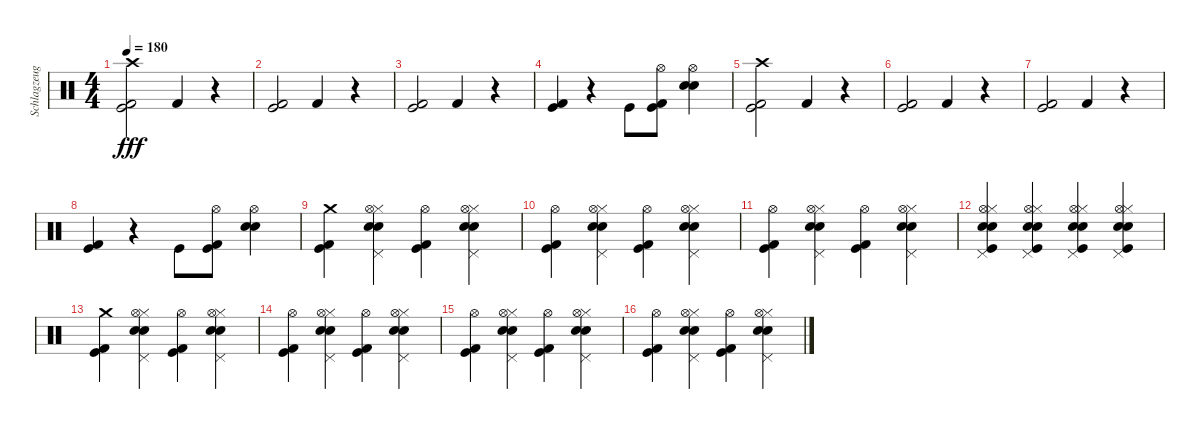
\track ("Schlagzeug" "Schlagzeug") {instrument percussion}
\staff {score}
\articulation defaults
\ts (4 4)
\tempo 180
\clef neutral
\ks c
("Kick (hit)" "Kick (hit) 2" "Crash high (hit)").2{dy fff} "Kick (hit) 2".4 r.4 |
("Kick (hit)" "Kick (hit) 2").2 "Kick (hit) 2".4 r.4 |
("Kick (hit)" "Kick (hit) 2").2 "Kick (hit) 2".4 r.4 |
("Kick (hit) 2" "Kick (hit)").4 r.4 "Kick (hit)".8 ("Hi-Hat (open)" "Kick (hit) 2" "Kick (hit)").8 ("Electric Snare (hit)" "Hi-Hat (open)" "Snare (hit) 2").4 |
("Kick (hit)" "Kick (hit) 2" "Crash high (hit)").2 "Kick (hit) 2".4 r.4 |
("Kick (hit)" "Kick (hit) 2").2 "Kick (hit) 2".4 r.4 |
("Kick (hit)" "Kick (hit) 2").2 "Kick (hit) 2".4 r.4 |
("Kick (hit) 2" "Kick (hit)").4 r.4 "Kick (hit)".8 ("Hi-Hat (open)" "Kick (hit) 2" "Kick (hit)").8 ("Electric Snare (hit)" "Hi-Hat (open)" "Snare (hit) 2").4 |
("Kick (hit)" "Kick (hit) 2" "Crash medium (hit)").4 ("Electric Snare (hit)" "Hi-Hat (closed)" "Snare (hit) 2" "Pedal Hi-Hat (hit)" "Hi-Hat (open)").4 ("Kick (hit)" "Kick (hit) 2" "Hi-Hat (open)").4 ("Electric Snare (hit)" "Hi-Hat (closed)" "Snare (hit) 2" "Pedal Hi-Hat (hit)" "Hi-Hat (open)").4 |
("Kick (hit)" "Kick (hit) 2" "Hi-Hat (open)").4 ("Electric Snare (hit)" "Hi-Hat (closed)" "Snare (hit) 2" "Pedal Hi-Hat (hit)" "Hi-Hat (open)").4 ("Kick (hit)" "Kick (hit) 2" "Hi-Hat (open)").4 ("Electric Snare (hit)" "Hi-Hat (closed)" "Snare (hit) 2" "Pedal Hi-Hat (hit)" "Hi-Hat (open)").4 |
("Kick (hit)" "Kick (hit) 2" "Hi-Hat (open)").4 ("Electric Snare (hit)" "Hi-Hat (closed)" "Snare (hit) 2" "Pedal Hi-Hat (hit)" "Hi-Hat (open)").4 ("Kick (hit)" "Hi-Hat (open)" "Kick (hit) 2").4 ("Electric Snare (hit)" "Hi-Hat (closed)" "Snare (hit) 2" "Pedal Hi-Hat (hit)" "Hi-Hat (open)").4 |
("Hi-Hat (open)" "Pedal Hi-Hat (hit)" "Snare (hit) 2" "Electric Snare (hit)" "Hi-Hat (closed)" "Kick (hit)").4 ("Hi-Hat (open)" "Pedal Hi-Hat (hit)" "Snare (hit) 2" "Electric Snare (hit)" "Hi-Hat (closed)" "Kick (hit)").4 ("Hi-Hat (open)" "Pedal Hi-Hat (hit)" "Snare (hit) 2" "Electric Snare (hit)" "Hi-Hat (closed)" "Kick (hit)").4 ("Hi-Hat (open)" "Pedal Hi-Hat (hit)" "Snare (hit) 2" "Electric Snare (hit)" "Hi-Hat (closed)" "Kick (hit)").4 |
("Kick (hit)" "Kick (hit) 2" "Crash medium (hit)").4 ("Electric Snare (hit)" "Hi-Hat (closed)" "Snare (hit) 2" "Pedal Hi-Hat (hit)" "Hi-Hat (open)").4 ("Kick (hit)" "Kick (hit) 2" "Hi-Hat (open)").4 ("Electric Snare (hit)" "Hi-Hat (closed)" "Snare (hit) 2" "Pedal Hi-Hat (hit)" "Hi-Hat (open)").4 |
("Kick (hit)" "Kick (hit) 2" "Hi-Hat (open)").4 ("Electric Snare (hit)" "Hi-Hat (closed)" "Snare (hit) 2" "Pedal Hi-Hat (hit)" "Hi-Hat (open)").4 ("Kick (hit)" "Kick (hit) 2" "Hi-Hat (open)").4 ("Electric Snare (hit)" "Hi-Hat (closed)" "Snare (hit) 2" "Pedal Hi-Hat (hit)" "Hi-Hat (open)").4 |
("Kick (hit)" "Kick (hit) 2" "Hi-Hat (open)").4 ("Electric Snare (hit)" "Hi-Hat (closed)" "Snare (hit) 2" "Pedal Hi-Hat (hit)" "Hi-Hat (open)").4 ("Kick (hit)" "Kick (hit) 2" "Hi-Hat (open)").4 ("Electric Snare (hit)" "Hi-Hat (closed)" "Snare (hit) 2" "Pedal Hi-Hat (hit)" "Hi-Hat (open)").4 |
("Kick (hit)" "Kick (hit) 2" "Hi-Hat (open)").4 ("Electric Snare (hit)" "Hi-Hat (closed)" "Snare (hit) 2" "Pedal Hi-Hat (hit)" "Hi-Hat (open)").4 ("Kick (hit)" "Kick (hit) 2" "Hi-Hat (open)").4 ("Electric Snare (hit)" "Hi-Hat (closed)" "Snare (hit) 2" "Pedal Hi-Hat (hit)" "Hi-Hat (open)").4
